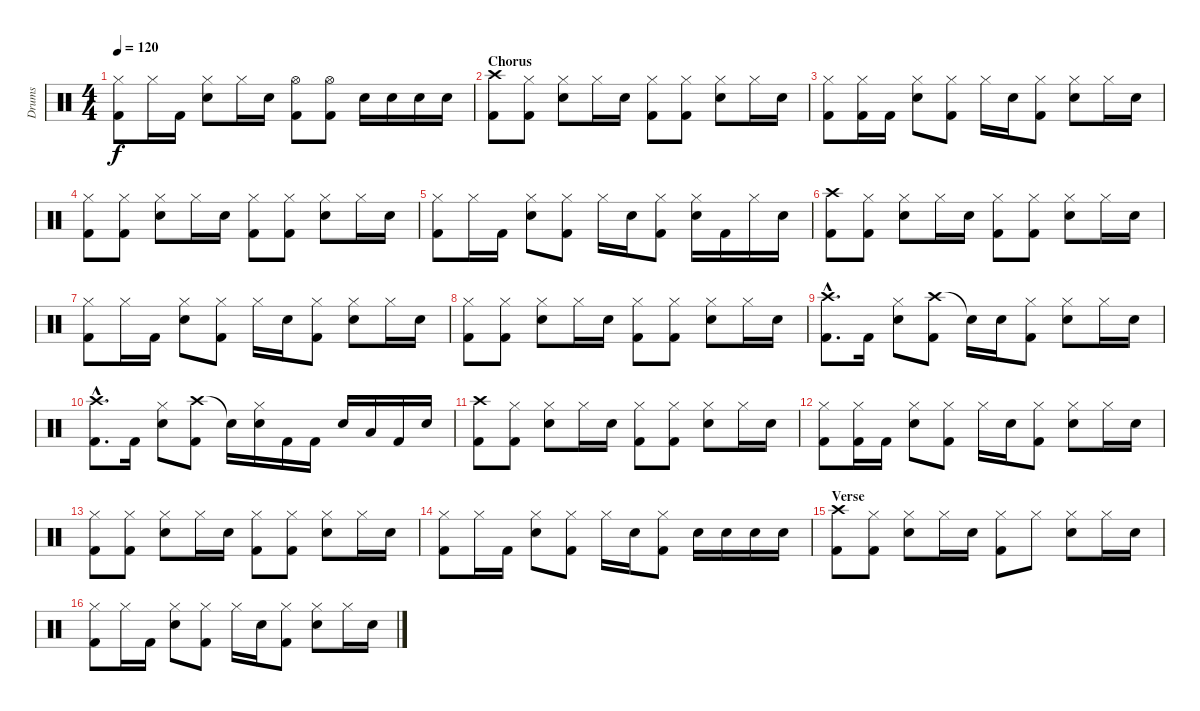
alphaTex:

\track ("Drums" "Drums") {instrument percussion}
\staff {score}
\articulation defaults
\ts (4 4)
\tempo 120
\clef neutral
\ks c
("Hi-Hat (closed)" "Kick (hit) 2").8{dy f} "Hi-Hat (closed)".16 "Kick (hit) 2".16 ("Hi-Hat (closed)" "Snare (hit) 2").8 "Hi-Hat (closed)".16 "Snare (hit) 2".16 ("Hi-Hat (open)" "Kick (hit) 2").8 ("Hi-Hat (open)" "Kick (hit) 2").8 "Snare (hit) 2".16 "Snare (hit) 2".16 "Snare (hit) 2".16 "Snare (hit) 2".16 |
\section ("" "Chorus")
("Crash high (hit)" "Kick (hit) 2").8 ("Hi-Hat (closed)" "Kick (hit) 2").8 ("Hi-Hat (closed)" "Snare (hit) 2").8 "Hi-Hat (closed)".16 "Snare (hit) 2".16 ("Hi-Hat (closed)" "Kick (hit) 2").8 ("Hi-Hat (closed)" "Kick (hit) 2").8 ("Hi-Hat (closed)" "Snare (hit) 2").8 "Hi-Hat (closed)".16 "Snare (hit) 2".16 |
("Hi-Hat (closed)" "Kick (hit) 2").8 ("Hi-Hat (closed)" "Kick (hit) 2").16 "Kick (hit) 2".16 ("Hi-Hat (closed)" "Snare (hit) 2").8 ("Hi-Hat (closed)" "Kick (hit) 2").8 "Hi-Hat (closed)".16 "Snare (hit) 2".16 ("Hi-Hat (closed)" "Kick (hit) 2").8 ("Hi-Hat (closed)" "Snare (hit) 2").8 "Hi-Hat (closed)".16 "Snare (hit) 2".16 |
("Hi-Hat (closed)" "Kick (hit) 2").8 ("Hi-Hat (closed)" "Kick (hit) 2").8 ("Hi-Hat (closed)" "Snare (hit) 2").8 "Hi-Hat (closed)".16 "Snare (hit) 2".16 ("Hi-Hat (closed)" "Kick (hit) 2").8 ("Hi-Hat (closed)" "Kick (hit) 2").8 ("Hi-Hat (closed)" "Snare (hit) 2").8 "Hi-Hat (closed)".16 "Snare (hit) 2".16 |
("Hi-Hat (closed)" "Kick (hit) 2").8 "Hi-Hat (closed)".16 "Kick (hit) 2".16 ("Hi-Hat (closed)" "Snare (hit) 2").8 ("Hi-Hat (closed)" "Kick (hit) 2").8 "Hi-Hat (closed)".16 "Snare (hit) 2".16 ("Hi-Hat (closed)" "Kick (hit) 2").8 ("Hi-Hat (closed)" "Snare (hit) 2").16 "Kick (hit) 2".16 "Hi-Hat (closed)".16 "Snare (hit) 2".16 |
("Crash high (hit)" "Kick (hit) 2").8 ("Hi-Hat (closed)" "Kick (hit) 2").8 ("Hi-Hat (closed)" "Snare (hit) 2").8 "Hi-Hat (closed)".16 "Snare (hit) 2".16 ("Hi-Hat (closed)" "Kick (hit) 2").8 ("Hi-Hat (closed)" "Kick (hit) 2").8 ("Hi-Hat (closed)" "Snare (hit) 2").8 "Hi-Hat (closed)".16 "Snare (hit) 2".16 |
("Hi-Hat (closed)" "Kick (hit) 2").8 "Hi-Hat (closed)".16 "Kick (hit) 2".16 ("Hi-Hat (closed)" "Snare (hit) 2").8 ("Hi-Hat (closed)" "Kick (hit) 2").8 "Hi-Hat (closed)".16 "Snare (hit) 2".16 ("Hi-Hat (closed)" "Kick (hit) 2").8 ("Hi-Hat (closed)" "Snare (hit) 2").8 "Hi-Hat (closed)".16 "Snare (hit) 2".16 |
("Hi-Hat (closed)" "Kick (hit) 2").8 ("Hi-Hat (closed)" "Kick (hit) 2").8 ("Hi-Hat (closed)" "Snare (hit) 2").8 "Hi-Hat (closed)".16 "Snare (hit) 2".16 ("Hi-Hat (closed)" "Kick (hit) 2").8 ("Hi-Hat (closed)" "Kick (hit) 2").8 ("Hi-Hat (closed)" "Snare (hit) 2").8 "Hi-Hat (closed)".16 "Snare (hit) 2".16 |
("Crash high (hit)"{hac} "Kick (hit) 2"{hac}).8{d} "Kick (hit) 2".16 ("Hi-Hat (closed)" "Snare (hit) 2").8 ("Crash high (hit)" "Kick (hit) 2").8 "Snare (hit)"{t}.16 "Snare (hit) 2".16 ("Hi-Hat (closed)" "Kick (hit) 2").8 ("Hi-Hat (closed)" "Snare (hit) 2").8 "Hi-Hat (closed)".16 "Snare (hit) 2".16 |
("Crash high (hit)"{hac} "Kick (hit) 2"{hac}).8{d} "Kick (hit) 2".16 ("Hi-Hat (closed)" "Snare (hit) 2").8 ("Crash high (hit)" "Kick (hit) 2").8 "Snare (hit)"{t}.16 ("Hi-Hat (closed)" "Snare (hit) 2").16 "Kick (hit) 2".16 "Kick (hit) 2".16 "Snare (hit) 2".16 "Low Tom (hit)".16 "Kick (hit) 2".16 "Snare (hit) 2".16 |
("Crash high (hit)" "Kick (hit) 2").8 ("Hi-Hat (closed)" "Kick (hit) 2").8 ("Hi-Hat (closed)" "Snare (hit) 2").8 "Hi-Hat (closed)".16 "Snare (hit) 2".16 ("Hi-Hat (closed)" "Kick (hit) 2").8 ("Hi-Hat (closed)" "Kick (hit) 2").8 ("Hi-Hat (closed)" "Snare (hit) 2").8 "Hi-Hat (closed)".16 "Snare (hit) 2".16 |
("Hi-Hat (closed)" "Kick (hit) 2").8 ("Hi-Hat (closed)" "Kick (hit) 2").16 "Kick (hit) 2".16 ("Hi-Hat (closed)" "Snare (hit) 2").8 ("Hi-Hat (closed)" "Kick (hit) 2").8 "Hi-Hat (closed)".16 "Snare (hit) 2".16 ("Hi-Hat (closed)" "Kick (hit) 2").8 ("Hi-Hat (closed)" "Snare (hit) 2").8 "Hi-Hat (closed)".16 "Snare (hit) 2".16 |
("Hi-Hat (closed)" "Kick (hit) 2").8 ("Hi-Hat (closed)" "Kick (hit) 2").8 ("Hi-Hat (closed)" "Snare (hit) 2").8 "Hi-Hat (closed)".16 "Snare (hit) 2".16 ("Hi-Hat (closed)" "Kick (hit) 2").8 ("Hi-Hat (closed)" "Kick (hit) 2").8 ("Hi-Hat (closed)" "Snare (hit) 2").8 "Hi-Hat (closed)".16 "Snare (hit) 2".16 |
("Hi-Hat (closed)" "Kick (hit) 2").8 "Hi-Hat (closed)".16 "Kick (hit) 2".16 ("Hi-Hat (closed)" "Snare (hit) 2").8 ("Hi-Hat (closed)" "Kick (hit) 2").8 "Hi-Hat (closed)".16 "Snare (hit) 2".16 ("Hi-Hat (closed)" "Kick (hit) 2").8 "Snare (hit) 2".16 "Snare (hit) 2".16 "Snare (hit) 2".16 "Snare (hit) 2".16 |
\section ("" "Verse")
("Crash high (hit)" "Kick (hit) 2").8 ("Hi-Hat (closed)" "Kick (hit) 2").8 ("Hi-Hat (closed)" "Snare (hit) 2").8 "Hi-Hat (closed)".16 "Snare (hit) 2".16 ("Hi-Hat (closed)" "Kick (hit) 2").8 "Hi-Hat (closed)".8 ("Hi-Hat (closed)" "Snare (hit) 2").8 "Hi-Hat (closed)".16 "Snare (hit) 2".16 |
("Hi-Hat (closed)" "Kick (hit) 2").8 "Hi-Hat (closed)".16 "Kick (hit) 2".16 ("Hi-Hat (closed)" "Snare (hit) 2").8 ("Hi-Hat (closed)" "Kick (hit) 2").8 "Hi-Hat (closed)".16 "Snare (hit) 2".16 ("Hi-Hat (closed)" "Kick (hit) 2").8 ("Hi-Hat (closed)" "Snare (hit) 2").8 "Hi-Hat (closed)".16 "Snare (hit) 2".16
